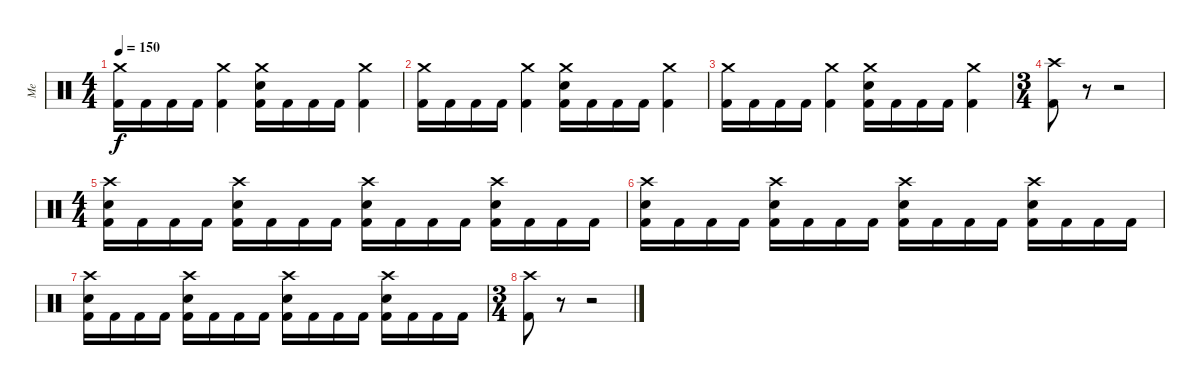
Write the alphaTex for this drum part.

\track ("Me" "Me") {instrument percussion}
\staff {score}
\articulation defaults
\ts (4 4)
\tempo 150
\clef neutral
\ks c
("Crash medium (hit)" "Kick (hit) 2").16{dy f} "Kick (hit) 2".16 "Kick (hit) 2".16 "Kick (hit) 2".16 ("Crash medium (hit)" "Kick (hit) 2").4 ("Crash medium (hit)" "Snare (hit) 2" "Kick (hit) 2").16 "Kick (hit) 2".16 "Kick (hit) 2".16 "Kick (hit) 2".16 ("Crash medium (hit)" "Kick (hit) 2").4 |
("Crash medium (hit)" "Kick (hit) 2").16 "Kick (hit) 2".16 "Kick (hit) 2".16 "Kick (hit) 2".16 ("Crash medium (hit)" "Kick (hit) 2").4 ("Crash medium (hit)" "Snare (hit) 2" "Kick (hit) 2").16 "Kick (hit) 2".16 "Kick (hit) 2".16 "Kick (hit) 2".16 ("Crash medium (hit)" "Kick (hit) 2").4 |
("Crash medium (hit)" "Kick (hit) 2").16 "Kick (hit) 2".16 "Kick (hit) 2".16 "Kick (hit) 2".16 ("Crash medium (hit)" "Kick (hit) 2").4 ("Crash medium (hit)" "Snare (hit) 2" "Kick (hit) 2").16 "Kick (hit) 2".16 "Kick (hit) 2".16 "Kick (hit) 2".16 ("Crash medium (hit)" "Kick (hit) 2").4 |
\ts (3 4)
("Crash high (hit)" "Kick (hit) 2").8 r.8 r.2 |
\ts (4 4)
("Crash high (hit)" "Snare (hit) 2" "Kick (hit) 2").16 "Kick (hit) 2".16 "Kick (hit) 2".16 "Kick (hit) 2".16 ("Crash high (hit)" "Snare (hit) 2" "Kick (hit) 2").16 "Kick (hit) 2".16 "Kick (hit) 2".16 "Kick (hit) 2".16 ("Crash high (hit)" "Snare (hit) 2" "Kick (hit) 2").16 "Kick (hit) 2".16 "Kick (hit) 2".16 "Kick (hit) 2".16 ("Crash high (hit)" "Snare (hit) 2" "Kick (hit) 2").16 "Kick (hit) 2".16 "Kick (hit) 2".16 "Kick (hit) 2".16 |
("Crash high (hit)" "Snare (hit) 2" "Kick (hit) 2").16 "Kick (hit) 2".16 "Kick (hit) 2".16 "Kick (hit) 2".16 ("Crash high (hit)" "Snare (hit) 2" "Kick (hit) 2").16 "Kick (hit) 2".16 "Kick (hit) 2".16 "Kick (hit) 2".16 ("Crash high (hit)" "Snare (hit) 2" "Kick (hit) 2").16 "Kick (hit) 2".16 "Kick (hit) 2".16 "Kick (hit) 2".16 ("Crash high (hit)" "Snare (hit) 2" "Kick (hit) 2").16 "Kick (hit) 2".16 "Kick (hit) 2".16 "Kick (hit) 2".16 |
("Crash high (hit)" "Snare (hit) 2" "Kick (hit) 2").16 "Kick (hit) 2".16 "Kick (hit) 2".16 "Kick (hit) 2".16 ("Crash high (hit)" "Snare (hit) 2" "Kick (hit) 2").16 "Kick (hit) 2".16 "Kick (hit) 2".16 "Kick (hit) 2".16 ("Crash high (hit)" "Snare (hit) 2" "Kick (hit) 2").16 "Kick (hit) 2".16 "Kick (hit) 2".16 "Kick (hit) 2".16 ("Crash high (hit)" "Snare (hit) 2" "Kick (hit) 2").16 "Kick (hit) 2".16 "Kick (hit) 2".16 "Kick (hit) 2".16 |
\ts (3 4)
("Crash high (hit)" "Kick (hit) 2").8 r.8 r.2
